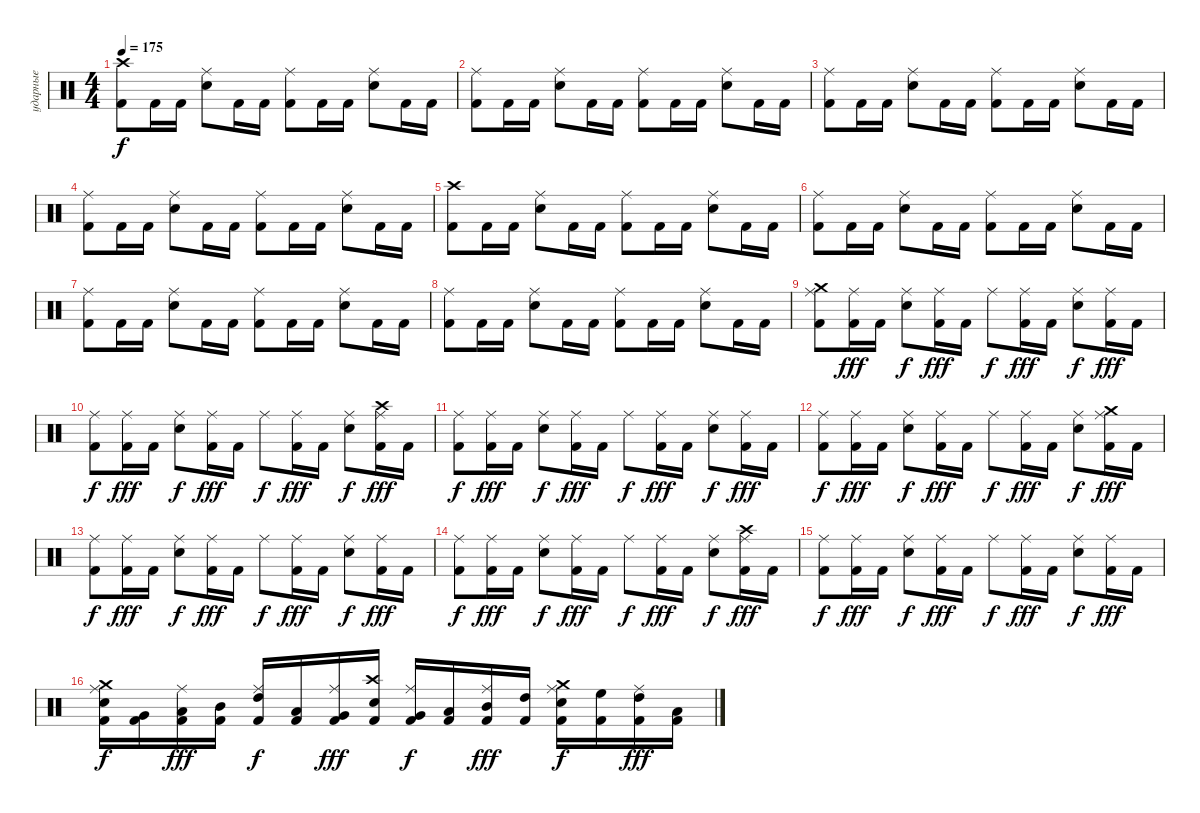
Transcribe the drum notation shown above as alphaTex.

\track ("ударные" "ударные") {instrument percussion}
\staff {score}
\articulation defaults
\ts (4 4)
\tempo 175
\clef neutral
\ks c
("Kick (hit) 2" "Crash high (hit)").8{dy f} "Kick (hit) 2".16 "Kick (hit) 2".16 ("Snare (hit) 2" "Ride (middle)").8 "Kick (hit) 2".16 "Kick (hit) 2".16 ("Kick (hit) 2" "Ride (middle)").8 "Kick (hit) 2".16 "Kick (hit) 2".16 ("Snare (hit) 2" "Ride (middle)").8 "Kick (hit) 2".16 "Kick (hit) 2".16 |
("Kick (hit) 2" "Ride (middle)").8 "Kick (hit) 2".16 "Kick (hit) 2".16 ("Snare (hit) 2" "Ride (middle)").8 "Kick (hit) 2".16 "Kick (hit) 2".16 ("Kick (hit) 2" "Ride (middle)").8 "Kick (hit) 2".16 "Kick (hit) 2".16 ("Snare (hit) 2" "Ride (middle)").8 "Kick (hit) 2".16 "Kick (hit) 2".16 |
("Kick (hit) 2" "Ride (middle)").8 "Kick (hit) 2".16 "Kick (hit) 2".16 ("Snare (hit) 2" "Ride (middle)").8 "Kick (hit) 2".16 "Kick (hit) 2".16 ("Kick (hit) 2" "Ride (middle)").8 "Kick (hit) 2".16 "Kick (hit) 2".16 ("Snare (hit) 2" "Ride (middle)").8 "Kick (hit) 2".16 "Kick (hit) 2".16 |
("Kick (hit) 2" "Ride (middle)").8 "Kick (hit) 2".16 "Kick (hit) 2".16 ("Snare (hit) 2" "Ride (middle)").8 "Kick (hit) 2".16 "Kick (hit) 2".16 ("Kick (hit) 2" "Ride (middle)").8 "Kick (hit) 2".16 "Kick (hit) 2".16 ("Snare (hit) 2" "Ride (middle)").8 "Kick (hit) 2".16 "Kick (hit) 2".16 |
("Kick (hit) 2" "Crash high (hit)").8 "Kick (hit) 2".16 "Kick (hit) 2".16 ("Snare (hit) 2" "Ride (middle)").8 "Kick (hit) 2".16 "Kick (hit) 2".16 ("Kick (hit) 2" "Ride (middle)").8 "Kick (hit) 2".16 "Kick (hit) 2".16 ("Snare (hit) 2" "Ride (middle)").8 "Kick (hit) 2".16 "Kick (hit) 2".16 |
("Kick (hit) 2" "Ride (middle)").8 "Kick (hit) 2".16 "Kick (hit) 2".16 ("Snare (hit) 2" "Ride (middle)").8 "Kick (hit) 2".16 "Kick (hit) 2".16 ("Kick (hit) 2" "Ride (middle)").8 "Kick (hit) 2".16 "Kick (hit) 2".16 ("Snare (hit) 2" "Ride (middle)").8 "Kick (hit) 2".16 "Kick (hit) 2".16 |
("Kick (hit) 2" "Ride (middle)").8 "Kick (hit) 2".16 "Kick (hit) 2".16 ("Snare (hit) 2" "Ride (middle)").8 "Kick (hit) 2".16 "Kick (hit) 2".16 ("Kick (hit) 2" "Ride (middle)").8 "Kick (hit) 2".16 "Kick (hit) 2".16 ("Snare (hit) 2" "Ride (middle)").8 "Kick (hit) 2".16 "Kick (hit) 2".16 |
("Kick (hit) 2" "Ride (middle)").8 "Kick (hit) 2".16 "Kick (hit) 2".16 ("Snare (hit) 2" "Ride (middle)").8 "Kick (hit) 2".16 "Kick (hit) 2".16 ("Kick (hit) 2" "Ride (middle)").8 "Kick (hit) 2".16 "Kick (hit) 2".16 ("Snare (hit) 2" "Ride (middle)").8 "Kick (hit) 2".16 "Kick (hit) 2".16 |
("Kick (hit) 2" "Crash medium (hit)" "Ride (middle)").8 ("Kick (hit) 2" "Ride (middle)").16{dy fff} "Kick (hit) 2".16 ("Snare (hit) 2" "Ride (middle)").8{dy f} ("Kick (hit) 2" "Ride (middle)").16{dy fff} "Kick (hit) 2".16 "Ride (middle)".8{dy f} ("Kick (hit) 2" "Ride (middle)").16{dy fff} "Kick (hit) 2".16 ("Snare (hit) 2" "Ride (middle)").8{dy f} ("Kick (hit) 2" "Ride (middle)").16{dy fff} "Kick (hit) 2".16 |
("Kick (hit) 2" "Ride (middle)").8{dy f} ("Kick (hit) 2" "Ride (middle)").16{dy fff} "Kick (hit) 2".16 ("Snare (hit) 2" "Ride (middle)").8{dy f} ("Kick (hit) 2" "Ride (middle)").16{dy fff} "Kick (hit) 2".16 "Ride (middle)".8{dy f} ("Kick (hit) 2" "Ride (middle)").16{dy fff} "Kick (hit) 2".16 ("Snare (hit) 2" "Ride (middle)").8{dy f} ("Kick (hit) 2" "Crash high (hit)" "Ride (middle)").16{dy fff} "Kick (hit) 2".16 |
("Kick (hit) 2" "Ride (middle)").8{dy f} ("Kick (hit) 2" "Ride (middle)").16{dy fff} "Kick (hit) 2".16 ("Snare (hit) 2" "Ride (middle)").8{dy f} ("Kick (hit) 2" "Ride (middle)").16{dy fff} "Kick (hit) 2".16 "Ride (middle)".8{dy f} ("Kick (hit) 2" "Ride (middle)").16{dy fff} "Kick (hit) 2".16 ("Snare (hit) 2" "Ride (middle)").8{dy f} ("Kick (hit) 2" "Ride (middle)").16{dy fff} "Kick (hit) 2".16 |
("Kick (hit) 2" "Ride (middle)").8{dy f} ("Kick (hit) 2" "Ride (middle)").16{dy fff} "Kick (hit) 2".16 ("Snare (hit) 2" "Ride (middle)").8{dy f} ("Kick (hit) 2" "Ride (middle)").16{dy fff} "Kick (hit) 2".16 "Ride (middle)".8{dy f} ("Kick (hit) 2" "Ride (middle)").16{dy fff} "Kick (hit) 2".16 ("Snare (hit) 2" "Ride (middle)").8{dy f} ("Kick (hit) 2" "Crash medium (hit)" "Ride (middle)").16{dy fff} "Kick (hit) 2".16 |
("Kick (hit) 2" "Ride (middle)").8{dy f} ("Kick (hit) 2" "Ride (middle)").16{dy fff} "Kick (hit) 2".16 ("Snare (hit) 2" "Ride (middle)").8{dy f} ("Kick (hit) 2" "Ride (middle)").16{dy fff} "Kick (hit) 2".16 "Ride (middle)".8{dy f} ("Kick (hit) 2" "Ride (middle)").16{dy fff} "Kick (hit) 2".16 ("Snare (hit) 2" "Ride (middle)").8{dy f} ("Kick (hit) 2" "Ride (middle)").16{dy fff} "Kick (hit) 2".16 |
("Kick (hit) 2" "Ride (middle)").8{dy f} ("Kick (hit) 2" "Ride (middle)").16{dy fff} "Kick (hit) 2".16 ("Snare (hit) 2" "Ride (middle)").8{dy f} ("Kick (hit) 2" "Ride (middle)").16{dy fff} "Kick (hit) 2".16 "Ride (middle)".8{dy f} ("Kick (hit) 2" "Ride (middle)").16{dy fff} "Kick (hit) 2".16 ("Snare (hit) 2" "Ride (middle)").8{dy f} ("Kick (hit) 2" "Crash high (hit)" "Ride (middle)").16{dy fff} "Kick (hit) 2".16 |
("Kick (hit) 2" "Ride (middle)").8{dy f} ("Kick (hit) 2" "Ride (middle)").16{dy fff} "Kick (hit) 2".16 ("Snare (hit) 2" "Ride (middle)").8{dy f} ("Kick (hit) 2" "Ride (middle)").16{dy fff} "Kick (hit) 2".16 "Ride (middle)".8{dy f} ("Kick (hit) 2" "Ride (middle)").16{dy fff} "Kick (hit) 2".16 ("Snare (hit) 2" "Ride (middle)").8{dy f} ("Kick (hit) 2" "Ride (middle)").16{dy fff} "Kick (hit) 2".16 |
("Snare (hit) 2" "Kick (hit) 2" "Crash medium (hit)" "Ride (middle)").16{dy f} ("Very Low Tom (hit)" "Kick (hit) 2").16 ("Low Tom (hit)" "Kick (hit) 2" "Ride (middle)").16{dy fff} ("Mid Tom (hit)" "Kick (hit) 2").16 ("High Tom (hit)" "Kick (hit) 2" "Ride (middle)").16{dy f} ("Low Tom (hit)" "Kick (hit) 2").16 ("Very Low Tom (hit)" "Kick (hit) 2" "Ride (middle)").16{dy fff} ("Snare (hit) 2" "Kick (hit) 2" "Crash high (hit)").16 ("Very Low Tom (hit)" "Kick (hit) 2" "Ride (middle)").16{dy f} ("Low Tom (hit)" "Kick (hit) 2").16 ("Mid Tom (hit)" "Kick (hit) 2" "Ride (middle)").16{dy fff} ("High Tom (hit)" "Kick (hit) 2").16 ("Snare (hit) 2" "Kick (hit) 2" "Crash medium (hit)" "Ride (middle)").16{dy f} ("High Floor Tom (hit)" "Kick (hit) 2").16 ("High Tom (hit)" "Kick (hit) 2" "Ride (middle)").16{dy fff} ("Low Tom (hit)" "Kick (hit) 2").16
